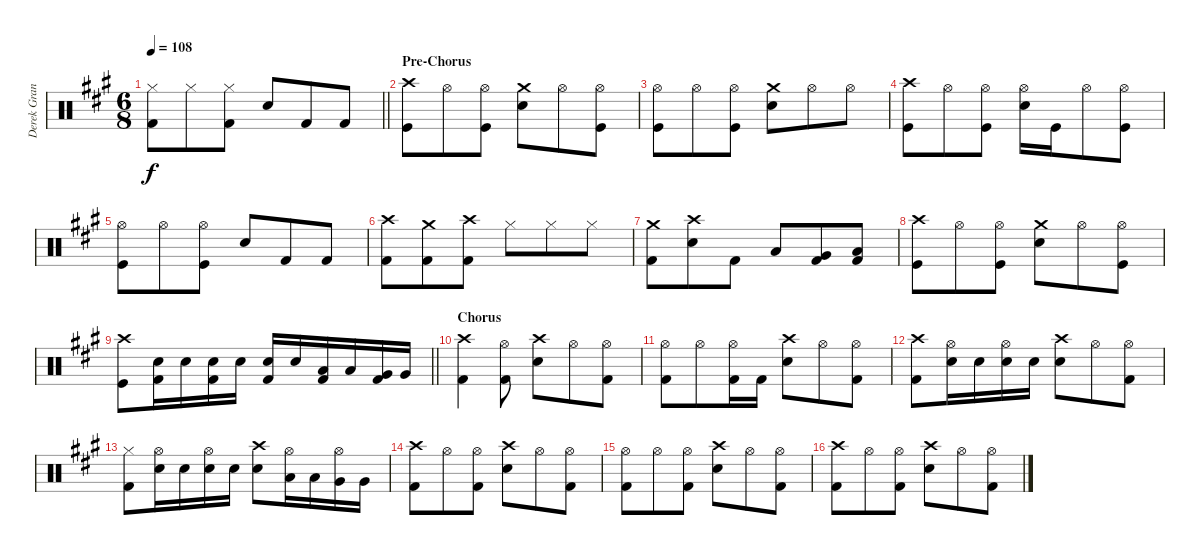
\track ("Derek Grant - Drums" "Derek Gran") {instrument percussion}
\staff {score}
\articulation defaults
\ts (6 8)
\tempo 108
\clef neutral
\barLineRight lightlight
\ks a
("Kick (hit) 2" "Hi-Hat (closed)").8{dy f} "Hi-Hat (closed)".8 ("Kick (hit) 2" "Hi-Hat (closed)").8 "Snare (hit) 2".8 "Kick (hit) 2".8 "Kick (hit) 2".8 |
\section ("" "Pre-Chorus")
("Crash high (hit)" "Kick (hit)").8 "Hi-Hat (open)".8 ("Hi-Hat (open)" "Kick (hit)").8 ("Crash medium (hit)" "Snare (hit) 2").8 "Hi-Hat (open)".8 ("Hi-Hat (open)" "Kick (hit)").8 |
("Kick (hit)" "Hi-Hat (open)").8 "Hi-Hat (open)".8 ("Hi-Hat (open)" "Kick (hit)").8 ("Crash medium (hit)" "Snare (hit) 2").8 "Hi-Hat (open)".8 "Hi-Hat (open)".8 |
("Crash high (hit)" "Kick (hit)").8 "Hi-Hat (open)".8 ("Hi-Hat (open)" "Kick (hit)").8 ("Hi-Hat (open)" "Snare (hit) 2").16 "Kick (hit)".16 "Hi-Hat (open)".8 ("Hi-Hat (open)" "Kick (hit)").8 |
("Kick (hit)" "Hi-Hat (open)").8 "Hi-Hat (open)".8 ("Hi-Hat (open)" "Kick (hit)").8 "Snare (hit) 2".8 "Kick (hit) 2".8 "Kick (hit) 2".8 |
("Crash high (hit)" "Kick (hit) 2").8 ("Crash medium (hit)" "Kick (hit) 2").8 ("Crash high (hit)" "Kick (hit) 2").8 "Hi-Hat (closed)".8 "Hi-Hat (closed)".8 "Hi-Hat (closed)".8 |
("Kick (hit) 2" "Crash medium (hit)").8 ("Snare (hit) 2" "Crash high (hit)").8 "Kick (hit) 2".8 "Low Tom (hit)".8 ("Very Low Tom (hit)" "Kick (hit) 2").8 ("Low Floor Tom (hit)" "Kick (hit) 2").8 |
("Crash high (hit)" "Kick (hit)").8 "Hi-Hat (open)".8 ("Hi-Hat (open)" "Kick (hit)").8 ("Crash medium (hit)" "Snare (hit) 2").8 "Hi-Hat (open)".8 ("Hi-Hat (open)" "Kick (hit)").8 |
\barLineRight lightlight
("Crash high (hit)" "Kick (hit)").8{volume 6} ("Snare (hit) 2" "Kick (hit) 2").16 "Snare (hit) 2".16 ("Snare (hit) 2" "Kick (hit) 2").16 "Snare (hit) 2".16 ("Snare (hit) 2" "Kick (hit) 2").16 "Snare (hit) 2".16 ("Low Tom (hit)" "Kick (hit) 2").16 "Low Tom (hit)".16 ("Very Low Tom (hit)" "Kick (hit) 2").16 "Very Low Tom (hit)".16 |
\section ("" "Chorus")
("Crash high (hit)" "Kick (hit) 2").4 ("Kick (hit) 2" "Hi-Hat (open)").8 ("Snare (hit) 2" "Crash high (hit)").8 "Hi-Hat (open)".8 ("Kick (hit) 2" "Hi-Hat (open)").8 |
("Kick (hit) 2" "Hi-Hat (open)").8 "Hi-Hat (open)".8 ("Kick (hit) 2" "Hi-Hat (open)").16 "Kick (hit) 2".16 ("Snare (hit) 2" "Crash high (hit)").8 "Hi-Hat (open)".8 ("Hi-Hat (open)" "Kick (hit) 2").8 |
("Crash high (hit)" "Kick (hit) 2").8 ("Hi-Hat (open)" "Snare (hit) 2").16 "Snare (hit) 2".16 ("Hi-Hat (open)" "Snare (hit) 2").16 "Snare (hit) 2".16 ("Snare (hit) 2" "Crash high (hit)").8 "Hi-Hat (open)".8 ("Kick (hit) 2" "Hi-Hat (open)").8 |
("Kick (hit) 2" "Hi-Hat (closed)").8 ("Hi-Hat (open)" "Snare (hit) 2").16 "Snare (hit) 2".16 ("Hi-Hat (open)" "Snare (hit) 2").16 "Snare (hit) 2".16 ("Snare (hit) 2" "Crash high (hit)").8 ("Hi-Hat (open)" "Low Tom (hit)").16 "Low Tom (hit)".16 ("Very Low Tom (hit)" "Hi-Hat (open)").16 "Very Low Tom (hit)".16 |
("Crash high (hit)" "Kick (hit) 2").8 "Hi-Hat (open)".8 ("Kick (hit) 2" "Hi-Hat (open)").8 ("Snare (hit) 2" "Crash high (hit)").8 "Hi-Hat (open)".8 ("Kick (hit) 2" "Hi-Hat (open)").8 |
("Kick (hit) 2" "Hi-Hat (open)").8 "Hi-Hat (open)".8 ("Kick (hit) 2" "Hi-Hat (open)").8 ("Snare (hit) 2" "Crash high (hit)").8 "Hi-Hat (open)".8 ("Hi-Hat (open)" "Kick (hit) 2").8 |
("Crash high (hit)" "Kick (hit) 2").8 "Hi-Hat (open)".8 ("Kick (hit) 2" "Hi-Hat (open)").8 ("Snare (hit) 2" "Crash high (hit)").8 "Hi-Hat (open)".8 ("Kick (hit) 2" "Hi-Hat (open)").8
